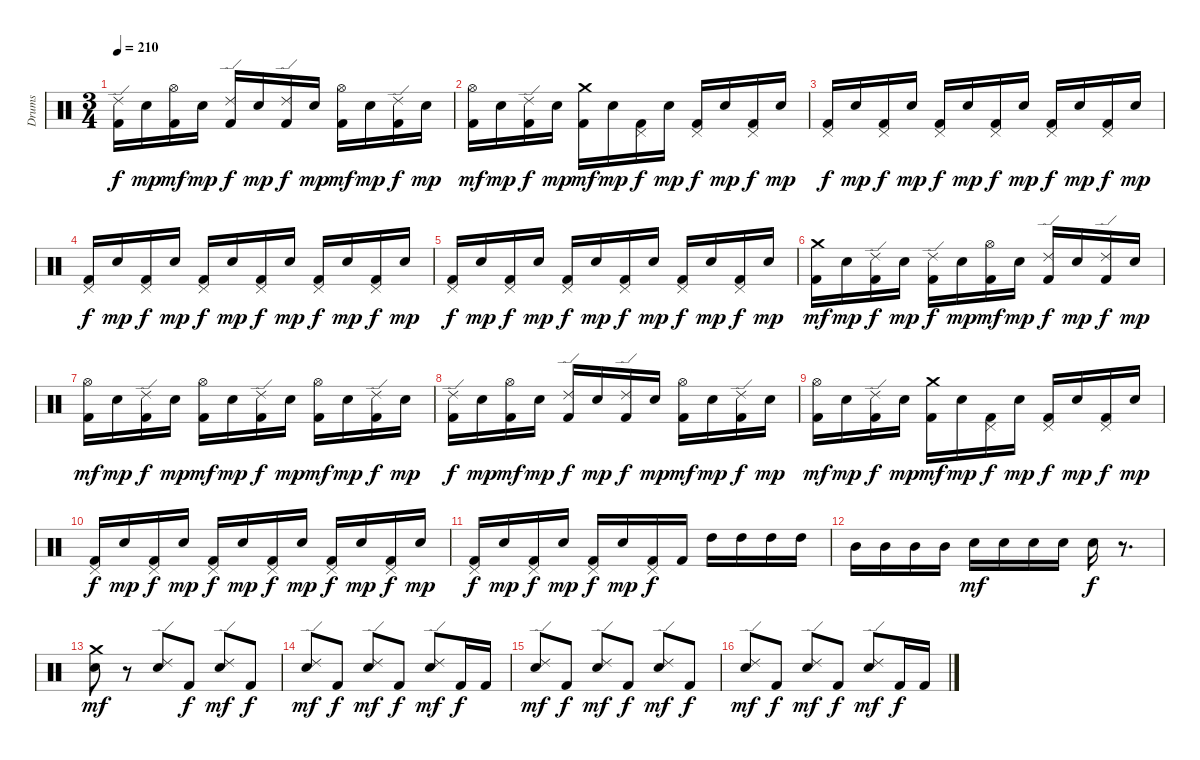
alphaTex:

\track ("Drums" "Drums") {instrument percussion}
\staff {score}
\articulation defaults
\ts (3 4)
\tempo 210
\clef neutral
\ks c
("Ride (edge) 2" "Kick (hit) 2").16{dy f} "Electric Snare (hit)".16{dy mp} ("Hi-Hat (open)" "Kick (hit) 2").16{dy mf} "Electric Snare (hit)".16{dy mp} ("Ride (edge) 2" "Kick (hit) 2").16{dy f} "Electric Snare (hit)".16{dy mp} ("Ride (edge) 2" "Kick (hit) 2").16{dy f} "Electric Snare (hit)".16{dy mp} ("Hi-Hat (open)" "Kick (hit) 2").16{dy mf} "Electric Snare (hit)".16{dy mp} ("Ride (edge) 2" "Kick (hit) 2").16{dy f} "Electric Snare (hit)".16{dy mp} |
("Hi-Hat (open)" "Kick (hit) 2").16{dy mf} "Electric Snare (hit)".16{dy mp} ("Ride (edge) 2" "Kick (hit) 2").16{dy f} "Electric Snare (hit)".16{dy mp} ("Crash medium (hit)" "Kick (hit) 2").16{dy mf} "Electric Snare (hit)".16{dy mp} ("Pedal Hi-Hat (hit)" "Kick (hit) 2").16{dy f} "Electric Snare (hit)".16{dy mp} ("Pedal Hi-Hat (hit)" "Kick (hit) 2").16{dy f} "Electric Snare (hit)".16{dy mp} ("Pedal Hi-Hat (hit)" "Kick (hit) 2").16{dy f} "Electric Snare (hit)".16{dy mp} |
("Pedal Hi-Hat (hit)" "Kick (hit) 2").16{dy f} "Electric Snare (hit)".16{dy mp} ("Pedal Hi-Hat (hit)" "Kick (hit) 2").16{dy f} "Electric Snare (hit)".16{dy mp} ("Pedal Hi-Hat (hit)" "Kick (hit) 2").16{dy f} "Electric Snare (hit)".16{dy mp} ("Pedal Hi-Hat (hit)" "Kick (hit) 2").16{dy f} "Electric Snare (hit)".16{dy mp} ("Pedal Hi-Hat (hit)" "Kick (hit) 2").16{dy f} "Electric Snare (hit)".16{dy mp} ("Pedal Hi-Hat (hit)" "Kick (hit) 2").16{dy f} "Electric Snare (hit)".16{dy mp} |
("Pedal Hi-Hat (hit)" "Kick (hit) 2").16{dy f} "Electric Snare (hit)".16{dy mp} ("Pedal Hi-Hat (hit)" "Kick (hit) 2").16{dy f} "Electric Snare (hit)".16{dy mp} ("Pedal Hi-Hat (hit)" "Kick (hit) 2").16{dy f} "Electric Snare (hit)".16{dy mp} ("Pedal Hi-Hat (hit)" "Kick (hit) 2").16{dy f} "Electric Snare (hit)".16{dy mp} ("Pedal Hi-Hat (hit)" "Kick (hit) 2").16{dy f} "Electric Snare (hit)".16{dy mp} ("Pedal Hi-Hat (hit)" "Kick (hit) 2").16{dy f} "Electric Snare (hit)".16{dy mp} |
("Pedal Hi-Hat (hit)" "Kick (hit) 2").16{dy f} "Electric Snare (hit)".16{dy mp} ("Pedal Hi-Hat (hit)" "Kick (hit) 2").16{dy f} "Electric Snare (hit)".16{dy mp} ("Pedal Hi-Hat (hit)" "Kick (hit) 2").16{dy f} "Electric Snare (hit)".16{dy mp} ("Pedal Hi-Hat (hit)" "Kick (hit) 2").16{dy f} "Electric Snare (hit)".16{dy mp} ("Pedal Hi-Hat (hit)" "Kick (hit) 2").16{dy f} "Electric Snare (hit)".16{dy mp} ("Pedal Hi-Hat (hit)" "Kick (hit) 2").16{dy f} "Electric Snare (hit)".16{dy mp} |
("Crash medium (hit)" "Kick (hit) 2").16{dy mf} "Electric Snare (hit)".16{dy mp} ("Ride (edge) 2" "Kick (hit) 2").16{dy f} "Electric Snare (hit)".16{dy mp} ("Ride (edge) 2" "Kick (hit) 2").16{dy f} "Electric Snare (hit)".16{dy mp} ("Hi-Hat (open)" "Kick (hit) 2").16{dy mf} "Electric Snare (hit)".16{dy mp} ("Ride (edge) 2" "Kick (hit) 2").16{dy f} "Electric Snare (hit)".16{dy mp} ("Ride (edge) 2" "Kick (hit) 2").16{dy f} "Electric Snare (hit)".16{dy mp} |
("Hi-Hat (open)" "Kick (hit) 2").16{dy mf} "Electric Snare (hit)".16{dy mp} ("Ride (edge) 2" "Kick (hit) 2").16{dy f} "Electric Snare (hit)".16{dy mp} ("Hi-Hat (open)" "Kick (hit) 2").16{dy mf} "Electric Snare (hit)".16{dy mp} ("Ride (edge) 2" "Kick (hit) 2").16{dy f} "Electric Snare (hit)".16{dy mp} ("Hi-Hat (open)" "Kick (hit) 2").16{dy mf} "Electric Snare (hit)".16{dy mp} ("Ride (edge) 2" "Kick (hit) 2").16{dy f} "Electric Snare (hit)".16{dy mp} |
("Ride (edge) 2" "Kick (hit) 2").16{dy f} "Electric Snare (hit)".16{dy mp} ("Hi-Hat (open)" "Kick (hit) 2").16{dy mf} "Electric Snare (hit)".16{dy mp} ("Ride (edge) 2" "Kick (hit) 2").16{dy f} "Electric Snare (hit)".16{dy mp} ("Ride (edge) 2" "Kick (hit) 2").16{dy f} "Electric Snare (hit)".16{dy mp} ("Hi-Hat (open)" "Kick (hit) 2").16{dy mf} "Electric Snare (hit)".16{dy mp} ("Ride (edge) 2" "Kick (hit) 2").16{dy f} "Electric Snare (hit)".16{dy mp} |
("Hi-Hat (open)" "Kick (hit) 2").16{dy mf} "Electric Snare (hit)".16{dy mp} ("Ride (edge) 2" "Kick (hit) 2").16{dy f} "Electric Snare (hit)".16{dy mp} ("Crash medium (hit)" "Kick (hit) 2").16{dy mf} "Electric Snare (hit)".16{dy mp} ("Pedal Hi-Hat (hit)" "Kick (hit) 2").16{dy f} "Electric Snare (hit)".16{dy mp} ("Pedal Hi-Hat (hit)" "Kick (hit) 2").16{dy f} "Electric Snare (hit)".16{dy mp} ("Pedal Hi-Hat (hit)" "Kick (hit) 2").16{dy f} "Electric Snare (hit)".16{dy mp} |
("Pedal Hi-Hat (hit)" "Kick (hit) 2").16{dy f} "Electric Snare (hit)".16{dy mp} ("Pedal Hi-Hat (hit)" "Kick (hit) 2").16{dy f} "Electric Snare (hit)".16{dy mp} ("Pedal Hi-Hat (hit)" "Kick (hit) 2").16{dy f} "Electric Snare (hit)".16{dy mp} ("Pedal Hi-Hat (hit)" "Kick (hit) 2").16{dy f} "Electric Snare (hit)".16{dy mp} ("Pedal Hi-Hat (hit)" "Kick (hit) 2").16{dy f} "Electric Snare (hit)".16{dy mp} ("Pedal Hi-Hat (hit)" "Kick (hit) 2").16{dy f} "Electric Snare (hit)".16{dy mp} |
("Pedal Hi-Hat (hit)" "Kick (hit) 2").16{dy f} "Electric Snare (hit)".16{dy mp} ("Pedal Hi-Hat (hit)" "Kick (hit) 2").16{dy f} "Electric Snare (hit)".16{dy mp} ("Pedal Hi-Hat (hit)" "Kick (hit) 2").16{dy f} "Electric Snare (hit)".16{dy mp} ("Pedal Hi-Hat (hit)" "Kick (hit) 2").16{dy f} "Kick (hit) 2".16 "High Tom (hit)".16 "High Tom (hit)".16 "High Tom (hit)".16 "High Tom (hit)".16 |
"Mid Tom (hit)".16 "Mid Tom (hit)".16 "Mid Tom (hit)".16 "Mid Tom (hit)".16 "Electric Snare (hit)".16{dy mf} "Electric Snare (hit)".16 "Electric Snare (hit)".16 "Electric Snare (hit)".16 "Electric Snare (hit)".16{dy f} r.8{d} |
("Crash medium (hit)" "Electric Snare (hit)").8{dy mf} r.8 ("Ride (edge) 2" "Electric Snare (hit)").8 "Kick (hit) 2".8{dy f} ("Ride (edge) 2" "Electric Snare (hit)").8{dy mf} "Kick (hit) 2".8{dy f} |
("Ride (edge) 2" "Electric Snare (hit)").8{dy mf} "Kick (hit) 2".8{dy f} ("Ride (edge) 2" "Electric Snare (hit)").8{dy mf} "Kick (hit) 2".8{dy f} ("Ride (edge) 2" "Electric Snare (hit)").8{dy mf} "Kick (hit) 2".16{dy f} "Kick (hit) 2".16 |
("Ride (edge) 2" "Electric Snare (hit)").8{dy mf} "Kick (hit) 2".8{dy f} ("Ride (edge) 2" "Electric Snare (hit)").8{dy mf} "Kick (hit) 2".8{dy f} ("Ride (edge) 2" "Electric Snare (hit)").8{dy mf} "Kick (hit) 2".8{dy f} |
("Ride (edge) 2" "Electric Snare (hit)").8{dy mf} "Kick (hit) 2".8{dy f} ("Ride (edge) 2" "Electric Snare (hit)").8{dy mf} "Kick (hit) 2".8{dy f} ("Ride (edge) 2" "Electric Snare (hit)").8{dy mf} "Kick (hit) 2".16{dy f} "Kick (hit) 2".16
